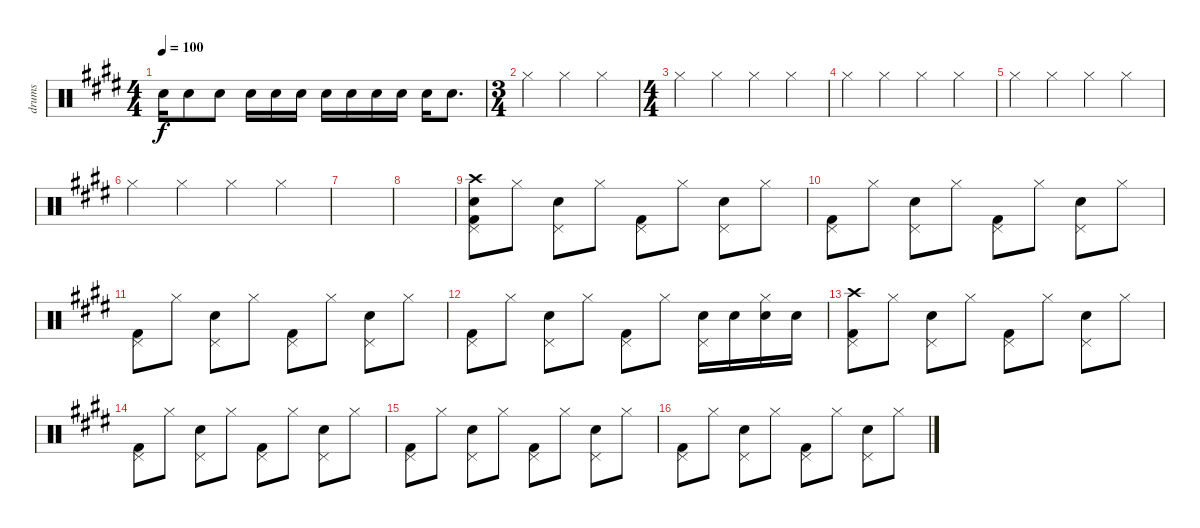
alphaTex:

\track ("drums" "drums") {instrument percussion}
\staff {score}
\articulation defaults
\ts (4 4)
\tempo 100
\clef neutral
\ks e "Snare (hit) 2".16{dy f} "Snare (hit) 2".8 "Snare (hit) 2".8 "Snare (hit) 2".16 "Snare (hit) 2".16 "Snare (hit) 2".16 "Snare (hit) 2".16 "Snare (hit) 2".16 "Snare (hit) 2".16 "Snare (hit) 2".16 "Snare (hit) 2".16 "Snare (hit) 2".8{d}
|
\ts (3 4)
"Hi-Hat (closed)".4 "Hi-Hat (closed)".4 "Hi-Hat (closed)".4 |
\ts (4 4)
"Hi-Hat (closed)".4 "Hi-Hat (closed)".4 "Hi-Hat (closed)".4 "Hi-Hat (closed)".4 |
"Hi-Hat (closed)".4 "Hi-Hat (closed)".4 "Hi-Hat (closed)".4 "Hi-Hat (closed)".4 |
"Hi-Hat (closed)".4 "Hi-Hat (closed)".4 "Hi-Hat (closed)".4 "Hi-Hat (closed)".4 |
"Hi-Hat (closed)".4 "Hi-Hat (closed)".4 "Hi-Hat (closed)".4 "Hi-Hat (closed)".4 |
|
|
("Crash high (hit)" "Snare (hit)" "Pedal Hi-Hat (hit)" "Kick (hit) 2").8 "Hi-Hat (closed)".8 ("Snare (hit) 2" "Pedal Hi-Hat (hit)").8 "Hi-Hat (closed)".8 ("Pedal Hi-Hat (hit)" "Kick (hit) 2").8 "Hi-Hat (closed)".8 ("Snare (hit) 2" "Pedal Hi-Hat (hit)").8 "Hi-Hat (closed)".8 |
("Pedal Hi-Hat (hit)" "Kick (hit) 2").8 "Hi-Hat (closed)".8 ("Snare (hit) 2" "Pedal Hi-Hat (hit)").8 "Hi-Hat (closed)".8 ("Pedal Hi-Hat (hit)" "Kick (hit) 2").8 "Hi-Hat (closed)".8 ("Snare (hit) 2" "Pedal Hi-Hat (hit)").8 "Hi-Hat (closed)".8 |
("Pedal Hi-Hat (hit)" "Kick (hit) 2").8 "Hi-Hat (closed)".8 ("Snare (hit) 2" "Pedal Hi-Hat (hit)").8 "Hi-Hat (closed)".8 ("Pedal Hi-Hat (hit)" "Kick (hit) 2").8 "Hi-Hat (closed)".8 ("Snare (hit) 2" "Pedal Hi-Hat (hit)").8 "Hi-Hat (closed)".8 |
("Pedal Hi-Hat (hit)" "Kick (hit) 2").8 "Hi-Hat (closed)".8 ("Snare (hit) 2" "Pedal Hi-Hat (hit)").8 "Hi-Hat (closed)".8 ("Pedal Hi-Hat (hit)" "Kick (hit) 2").8 "Hi-Hat (closed)".8 ("Snare (hit) 2" "Pedal Hi-Hat (hit)").16 "Snare (hit) 2".16 ("Snare (hit) 2" "Hi-Hat (closed)").16 "Snare (hit) 2".16 |
("Crash high (hit)" "Pedal Hi-Hat (hit)" "Kick (hit) 2").8 "Hi-Hat (closed)".8 ("Snare (hit) 2" "Pedal Hi-Hat (hit)").8 "Hi-Hat (closed)".8 ("Pedal Hi-Hat (hit)" "Kick (hit) 2").8 "Hi-Hat (closed)".8 ("Snare (hit) 2" "Pedal Hi-Hat (hit)").8 "Hi-Hat (closed)".8 |
("Pedal Hi-Hat (hit)" "Kick (hit) 2").8 "Hi-Hat (closed)".8 ("Snare (hit) 2" "Pedal Hi-Hat (hit)").8 "Hi-Hat (closed)".8 ("Pedal Hi-Hat (hit)" "Kick (hit) 2").8 "Hi-Hat (closed)".8 ("Snare (hit) 2" "Pedal Hi-Hat (hit)").8 "Hi-Hat (closed)".8 |
("Pedal Hi-Hat (hit)" "Kick (hit) 2").8 "Hi-Hat (closed)".8 ("Snare (hit) 2" "Pedal Hi-Hat (hit)").8 "Hi-Hat (closed)".8 ("Pedal Hi-Hat (hit)" "Kick (hit) 2").8 "Hi-Hat (closed)".8 ("Snare (hit) 2" "Pedal Hi-Hat (hit)").8 "Hi-Hat (closed)".8 |
("Pedal Hi-Hat (hit)" "Kick (hit) 2").8 "Hi-Hat (closed)".8 ("Snare (hit) 2" "Pedal Hi-Hat (hit)").8 "Hi-Hat (closed)".8 ("Pedal Hi-Hat (hit)" "Kick (hit) 2").8 "Hi-Hat (closed)".8 ("Snare (hit) 2" "Pedal Hi-Hat (hit)").8 "Hi-Hat (closed)".8
